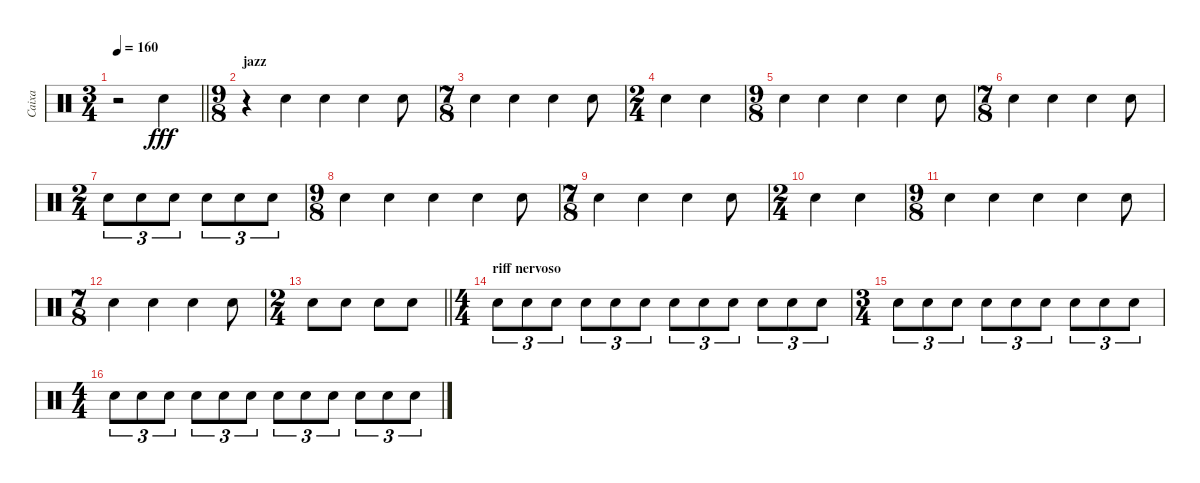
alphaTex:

\track ("Caixa" "Caixa") {instrument percussion}
\staff {score}
\articulation defaults
\ts (3 4)
\tempo 160
\clef neutral
\barLineRight lightlight
\ks c
r.2{dy fff} "Electric Snare (hit)".4 |
\ts (9 8)
\section ("" "jazz")
r.4 "Electric Snare (hit)".4 "Electric Snare (hit)".4 "Electric Snare (hit)".4 "Electric Snare (hit)".8 |
\ts (7 8)
"Electric Snare (hit)".4 "Electric Snare (hit)".4 "Electric Snare (hit)".4 "Electric Snare (hit)".8 |
\ts (2 4)
"Electric Snare (hit)".4 "Electric Snare (hit)".4 |
\ts (9 8)
"Electric Snare (hit)".4 "Electric Snare (hit)".4 "Electric Snare (hit)".4 "Electric Snare (hit)".4 "Electric Snare (hit)".8 |
\ts (7 8)
"Electric Snare (hit)".4 "Electric Snare (hit)".4 "Electric Snare (hit)".4 "Electric Snare (hit)".8 |
\ts (2 4)
"Electric Snare (hit)".8{tu (3 2)} "Electric Snare (hit)".8{tu (3 2)} "Electric Snare (hit)".8{tu (3 2)} "Electric Snare (hit)".8{tu (3 2)} "Electric Snare (hit)".8{tu (3 2)} "Electric Snare (hit)".8{tu (3 2)} |
\ts (9 8)
"Electric Snare (hit)".4 "Electric Snare (hit)".4 "Electric Snare (hit)".4 "Electric Snare (hit)".4 "Electric Snare (hit)".8 |
\ts (7 8)
"Electric Snare (hit)".4 "Electric Snare (hit)".4 "Electric Snare (hit)".4 "Electric Snare (hit)".8 |
\ts (2 4)
"Electric Snare (hit)".4 "Electric Snare (hit)".4 |
\ts (9 8)
"Electric Snare (hit)".4 "Electric Snare (hit)".4 "Electric Snare (hit)".4 "Electric Snare (hit)".4 "Electric Snare (hit)".8 |
\ts (7 8)
"Electric Snare (hit)".4 "Electric Snare (hit)".4 "Electric Snare (hit)".4 "Electric Snare (hit)".8 |
\ts (2 4)
\barLineRight lightlight "Electric Snare (hit)".8 "Electric Snare (hit)".8 "Electric Snare (hit)".8 "Electric Snare (hit)".8
|
\ts (4 4)
\section ("" "riff nervoso")
"Electric Snare (hit)".8{tu (3 2)} "Electric Snare (hit)".8{tu (3 2)} "Electric Snare (hit)".8{tu (3 2)} "Electric Snare (hit)".8{tu (3 2)} "Electric Snare (hit)".8{tu (3 2)} "Electric Snare (hit)".8{tu (3 2)} "Electric Snare (hit)".8{tu (3 2)} "Electric Snare (hit)".8{tu (3 2)} "Electric Snare (hit)".8{tu (3 2)} "Electric Snare (hit)".8{tu (3 2)} "Electric Snare (hit)".8{tu (3 2)} "Electric Snare (hit)".8{tu (3 2)} |
\ts (3 4)
"Electric Snare (hit)".8{tu (3 2)} "Electric Snare (hit)".8{tu (3 2)} "Electric Snare (hit)".8{tu (3 2)} "Electric Snare (hit)".8{tu (3 2)} "Electric Snare (hit)".8{tu (3 2)} "Electric Snare (hit)".8{tu (3 2)} "Electric Snare (hit)".8{tu (3 2)} "Electric Snare (hit)".8{tu (3 2)} "Electric Snare (hit)".8{tu (3 2)} |
\ts (4 4)
"Electric Snare (hit)".8{tu (3 2)} "Electric Snare (hit)".8{tu (3 2)} "Electric Snare (hit)".8{tu (3 2)} "Electric Snare (hit)".8{tu (3 2)} "Electric Snare (hit)".8{tu (3 2)} "Electric Snare (hit)".8{tu (3 2)} "Electric Snare (hit)".8{tu (3 2)} "Electric Snare (hit)".8{tu (3 2)} "Electric Snare (hit)".8{tu (3 2)} "Electric Snare (hit)".8{tu (3 2)} "Electric Snare (hit)".8{tu (3 2)} "Electric Snare (hit)".8{tu (3 2)}
